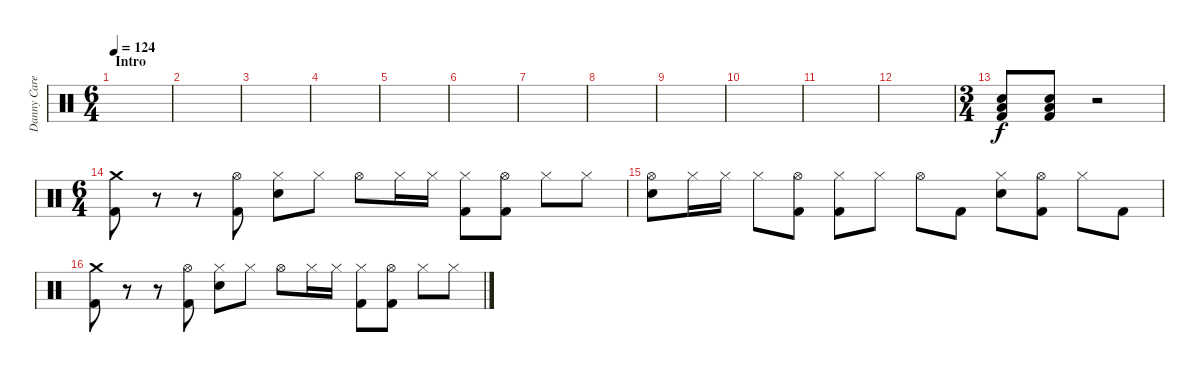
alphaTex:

\track ("Danny Carey" "Danny Care") {instrument percussion}
\staff {score}
\articulation defaults
\ts (6 4)
\section ("" "Intro")
\tempo 124
\clef neutral
\ks c
|
|
|
|
|
|
|
|
|
|
|
|
\ts (3 4)
("Electric Snare (hit)" "Low Floor Tom (hit)" "Kick (hit) 2").8 ("Electric Snare (hit)" "Low Floor Tom (hit)" "Kick (hit) 2").8 r.2 |
\ts (6 4)
("Crash medium (hit)" "Kick (hit) 2").8 r.8 r.8 ("Hi-Hat (open)" "Kick (hit) 2").8 ("Hi-Hat (closed)" "Electric Snare (hit)").8 "Hi-Hat (closed)".8 "Hi-Hat (open)".8 "Hi-Hat (closed)".16 "Hi-Hat (closed)".16 ("Hi-Hat (closed)" "Kick (hit) 2").8 ("Hi-Hat (open)" "Kick (hit) 2").8 "Hi-Hat (closed)".8 "Hi-Hat (closed)".8 |
\section ("" "")
("Hi-Hat (open)" "Electric Snare (hit)").8 "Hi-Hat (closed)".16 "Hi-Hat (closed)".16 "Hi-Hat (closed)".8 ("Hi-Hat (open)" "Kick (hit) 2").8 ("Hi-Hat (closed)" "Kick (hit) 2").8 "Hi-Hat (closed)".8 "Hi-Hat (open)".8 "Kick (hit) 2".8 ("Hi-Hat (closed)" "Electric Snare (hit)").8 ("Hi-Hat (open)" "Kick (hit) 2").8 "Hi-Hat (closed)".8 "Kick (hit) 2".8 |
("Crash medium (hit)" "Kick (hit) 2").8 r.8 r.8 ("Hi-Hat (open)" "Kick (hit) 2").8 ("Hi-Hat (closed)" "Electric Snare (hit)").8 "Hi-Hat (closed)".8 "Hi-Hat (open)".8 "Hi-Hat (closed)".16 "Hi-Hat (closed)".16 ("Hi-Hat (closed)" "Kick (hit) 2").8 ("Hi-Hat (open)" "Kick (hit) 2").8 "Hi-Hat (closed)".8 "Hi-Hat (closed)".8
